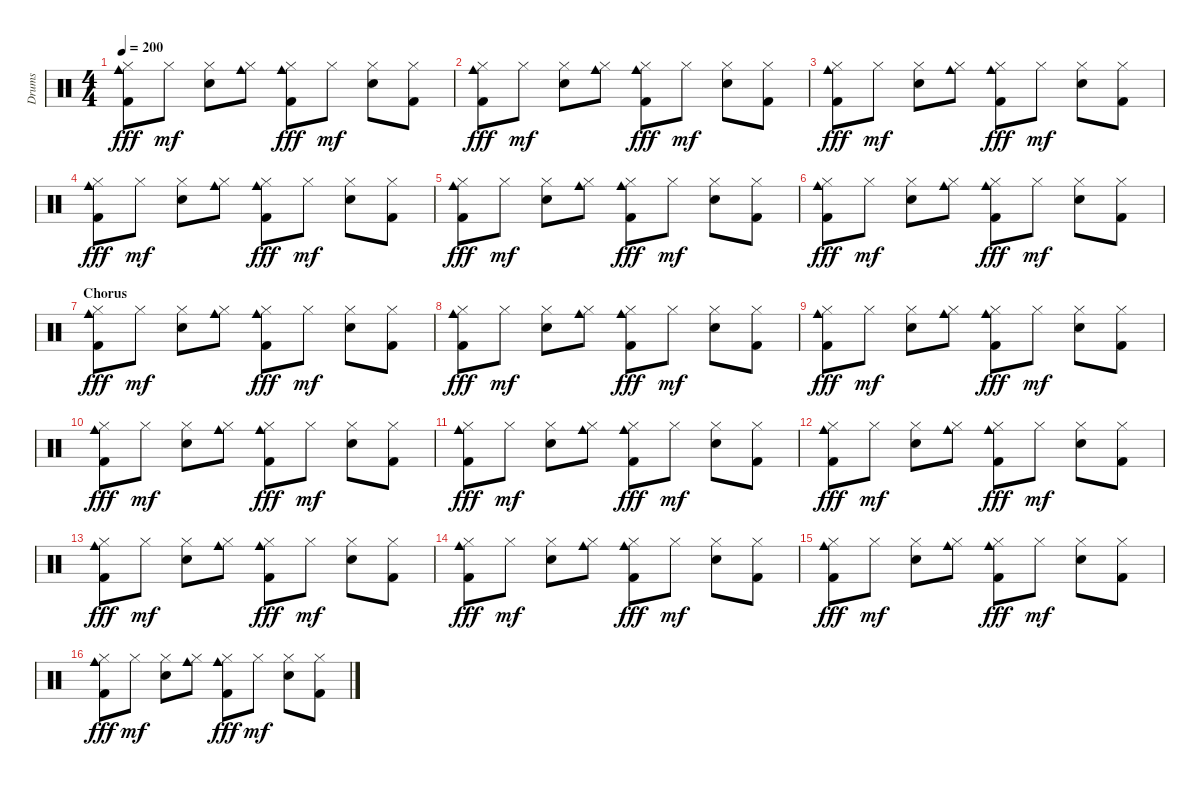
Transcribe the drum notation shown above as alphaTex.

\track ("Drums" "Drums") {instrument percussion}
\staff {score}
\articulation defaults
\ts (4 4)
\tempo 200
\clef neutral
\ks c
("Cowbell medium (hit)" "Hi-Hat (closed)" "Kick (hit) 2").8{dy fff} "Hi-Hat (closed)".8{dy mf} ("Hi-Hat (closed)" "Electric Snare (hit)").8 ("Cowbell medium (hit)" "Hi-Hat (closed)").8 ("Cowbell medium (hit)" "Hi-Hat (closed)" "Kick (hit) 2").8{dy fff} "Hi-Hat (closed)".8{dy mf} ("Hi-Hat (closed)" "Electric Snare (hit)").8 ("Hi-Hat (closed)" "Kick (hit) 2").8 |
("Cowbell medium (hit)" "Hi-Hat (closed)" "Kick (hit) 2").8{dy fff} "Hi-Hat (closed)".8{dy mf} ("Hi-Hat (closed)" "Electric Snare (hit)").8 ("Cowbell medium (hit)" "Hi-Hat (closed)").8 ("Cowbell medium (hit)" "Hi-Hat (closed)" "Kick (hit) 2").8{dy fff} "Hi-Hat (closed)".8{dy mf} ("Hi-Hat (closed)" "Electric Snare (hit)").8 ("Hi-Hat (closed)" "Kick (hit) 2").8 |
("Cowbell medium (hit)" "Hi-Hat (closed)" "Kick (hit) 2").8{dy fff} "Hi-Hat (closed)".8{dy mf} ("Hi-Hat (closed)" "Electric Snare (hit)").8 ("Cowbell medium (hit)" "Hi-Hat (closed)").8 ("Cowbell medium (hit)" "Hi-Hat (closed)" "Kick (hit) 2").8{dy fff} "Hi-Hat (closed)".8{dy mf} ("Hi-Hat (closed)" "Electric Snare (hit)").8 ("Hi-Hat (closed)" "Kick (hit) 2").8 |
("Cowbell medium (hit)" "Hi-Hat (closed)" "Kick (hit) 2").8{dy fff} "Hi-Hat (closed)".8{dy mf} ("Hi-Hat (closed)" "Electric Snare (hit)").8 ("Cowbell medium (hit)" "Hi-Hat (closed)").8 ("Cowbell medium (hit)" "Hi-Hat (closed)" "Kick (hit) 2").8{dy fff} "Hi-Hat (closed)".8{dy mf} ("Hi-Hat (closed)" "Electric Snare (hit)").8 ("Hi-Hat (closed)" "Kick (hit) 2").8 |
("Cowbell medium (hit)" "Hi-Hat (closed)" "Kick (hit) 2").8{dy fff} "Hi-Hat (closed)".8{dy mf} ("Hi-Hat (closed)" "Electric Snare (hit)").8 ("Cowbell medium (hit)" "Hi-Hat (closed)").8 ("Cowbell medium (hit)" "Hi-Hat (closed)" "Kick (hit) 2").8{dy fff} "Hi-Hat (closed)".8{dy mf} ("Hi-Hat (closed)" "Electric Snare (hit)").8 ("Hi-Hat (closed)" "Kick (hit) 2").8 |
("Cowbell medium (hit)" "Hi-Hat (closed)" "Kick (hit) 2").8{dy fff} "Hi-Hat (closed)".8{dy mf} ("Hi-Hat (closed)" "Electric Snare (hit)").8 ("Cowbell medium (hit)" "Hi-Hat (closed)").8 ("Cowbell medium (hit)" "Hi-Hat (closed)" "Kick (hit) 2").8{dy fff} "Hi-Hat (closed)".8{dy mf} ("Hi-Hat (closed)" "Electric Snare (hit)").8 ("Hi-Hat (closed)" "Kick (hit) 2").8 |
\section ("" "Chorus")
("Cowbell medium (hit)" "Hi-Hat (closed)" "Kick (hit) 2").8{dy fff} "Hi-Hat (closed)".8{dy mf} ("Hi-Hat (closed)" "Electric Snare (hit)").8 ("Cowbell medium (hit)" "Hi-Hat (closed)").8 ("Cowbell medium (hit)" "Hi-Hat (closed)" "Kick (hit) 2").8{dy fff} "Hi-Hat (closed)".8{dy mf} ("Hi-Hat (closed)" "Electric Snare (hit)").8 ("Hi-Hat (closed)" "Kick (hit) 2").8 |
("Cowbell medium (hit)" "Hi-Hat (closed)" "Kick (hit) 2").8{dy fff} "Hi-Hat (closed)".8{dy mf} ("Hi-Hat (closed)" "Electric Snare (hit)").8 ("Cowbell medium (hit)" "Hi-Hat (closed)").8 ("Cowbell medium (hit)" "Hi-Hat (closed)" "Kick (hit) 2").8{dy fff} "Hi-Hat (closed)".8{dy mf} ("Hi-Hat (closed)" "Electric Snare (hit)").8 ("Hi-Hat (closed)" "Kick (hit) 2").8 |
("Cowbell medium (hit)" "Hi-Hat (closed)" "Kick (hit) 2").8{dy fff} "Hi-Hat (closed)".8{dy mf} ("Hi-Hat (closed)" "Electric Snare (hit)").8 ("Cowbell medium (hit)" "Hi-Hat (closed)").8 ("Cowbell medium (hit)" "Hi-Hat (closed)" "Kick (hit) 2").8{dy fff} "Hi-Hat (closed)".8{dy mf} ("Hi-Hat (closed)" "Electric Snare (hit)").8 ("Hi-Hat (closed)" "Kick (hit) 2").8 |
("Cowbell medium (hit)" "Hi-Hat (closed)" "Kick (hit) 2").8{dy fff} "Hi-Hat (closed)".8{dy mf} ("Hi-Hat (closed)" "Electric Snare (hit)").8 ("Cowbell medium (hit)" "Hi-Hat (closed)").8 ("Cowbell medium (hit)" "Hi-Hat (closed)" "Kick (hit) 2").8{dy fff} "Hi-Hat (closed)".8{dy mf} ("Hi-Hat (closed)" "Electric Snare (hit)").8 ("Hi-Hat (closed)" "Kick (hit) 2").8 |
("Cowbell medium (hit)" "Hi-Hat (closed)" "Kick (hit) 2").8{dy fff} "Hi-Hat (closed)".8{dy mf} ("Hi-Hat (closed)" "Electric Snare (hit)").8 ("Cowbell medium (hit)" "Hi-Hat (closed)").8 ("Cowbell medium (hit)" "Hi-Hat (closed)" "Kick (hit) 2").8{dy fff} "Hi-Hat (closed)".8{dy mf} ("Hi-Hat (closed)" "Electric Snare (hit)").8 ("Hi-Hat (closed)" "Kick (hit) 2").8 |
("Cowbell medium (hit)" "Hi-Hat (closed)" "Kick (hit) 2").8{dy fff} "Hi-Hat (closed)".8{dy mf} ("Hi-Hat (closed)" "Electric Snare (hit)").8 ("Cowbell medium (hit)" "Hi-Hat (closed)").8 ("Cowbell medium (hit)" "Hi-Hat (closed)" "Kick (hit) 2").8{dy fff} "Hi-Hat (closed)".8{dy mf} ("Hi-Hat (closed)" "Electric Snare (hit)").8 ("Hi-Hat (closed)" "Kick (hit) 2").8 |
("Cowbell medium (hit)" "Hi-Hat (closed)" "Kick (hit) 2").8{dy fff} "Hi-Hat (closed)".8{dy mf} ("Hi-Hat (closed)" "Electric Snare (hit)").8 ("Cowbell medium (hit)" "Hi-Hat (closed)").8 ("Cowbell medium (hit)" "Hi-Hat (closed)" "Kick (hit) 2").8{dy fff} "Hi-Hat (closed)".8{dy mf} ("Hi-Hat (closed)" "Electric Snare (hit)").8 ("Hi-Hat (closed)" "Kick (hit) 2").8 |
("Cowbell medium (hit)" "Hi-Hat (closed)" "Kick (hit) 2").8{dy fff} "Hi-Hat (closed)".8{dy mf} ("Hi-Hat (closed)" "Electric Snare (hit)").8 ("Cowbell medium (hit)" "Hi-Hat (closed)").8 ("Cowbell medium (hit)" "Hi-Hat (closed)" "Kick (hit) 2").8{dy fff} "Hi-Hat (closed)".8{dy mf} ("Hi-Hat (closed)" "Electric Snare (hit)").8 ("Hi-Hat (closed)" "Kick (hit) 2").8 |
("Cowbell medium (hit)" "Hi-Hat (closed)" "Kick (hit) 2").8{dy fff} "Hi-Hat (closed)".8{dy mf} ("Hi-Hat (closed)" "Electric Snare (hit)").8 ("Cowbell medium (hit)" "Hi-Hat (closed)").8 ("Cowbell medium (hit)" "Hi-Hat (closed)" "Kick (hit) 2").8{dy fff} "Hi-Hat (closed)".8{dy mf} ("Hi-Hat (closed)" "Electric Snare (hit)").8 ("Hi-Hat (closed)" "Kick (hit) 2").8 |
("Cowbell medium (hit)" "Hi-Hat (closed)" "Kick (hit) 2").8{dy fff} "Hi-Hat (closed)".8{dy mf} ("Hi-Hat (closed)" "Electric Snare (hit)").8 ("Cowbell medium (hit)" "Hi-Hat (closed)").8 ("Cowbell medium (hit)" "Hi-Hat (closed)" "Kick (hit) 2").8{dy fff} "Hi-Hat (closed)".8{dy mf} ("Hi-Hat (closed)" "Electric Snare (hit)").8 ("Hi-Hat (closed)" "Kick (hit) 2").8
